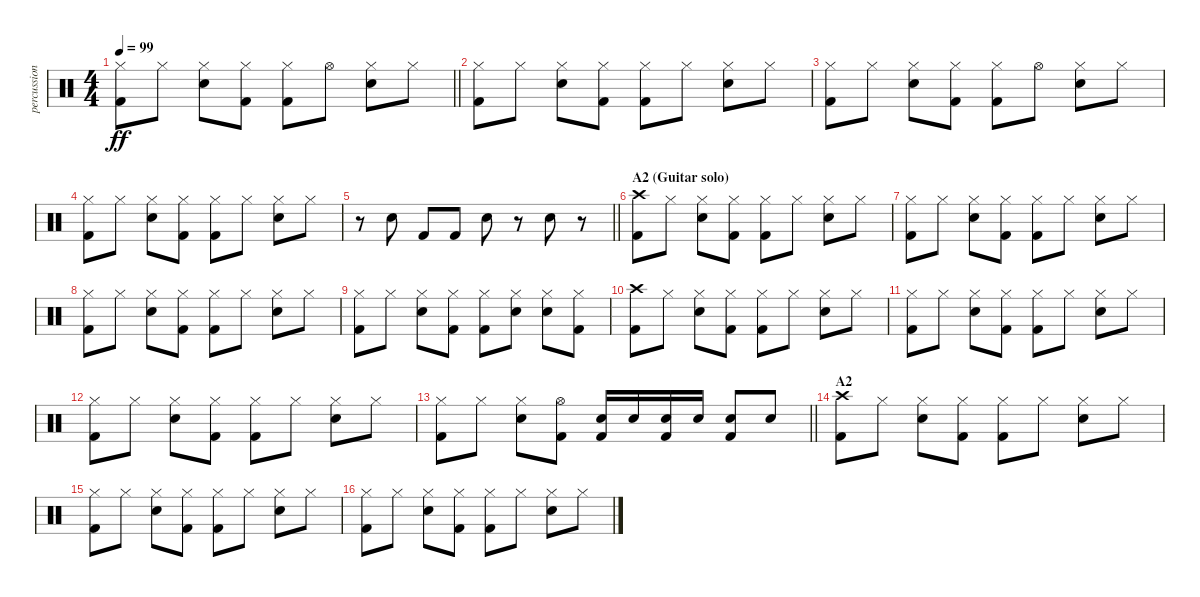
\track ("percussion" "percussion") {instrument percussion}
\staff {score}
\articulation defaults
\ts (4 4)
\tempo 99
\clef neutral
\barLineRight lightlight
\ks c
("Hi-Hat (closed)" "Kick (hit) 2").8{dy ff} "Hi-Hat (closed)".8 ("Snare (hit) 2" "Hi-Hat (closed)").8 ("Hi-Hat (closed)" "Kick (hit) 2").8 ("Hi-Hat (closed)" "Kick (hit) 2").8 "Hi-Hat (open)".8 ("Snare (hit) 2" "Hi-Hat (closed)").8 "Hi-Hat (closed)".8 |
("Hi-Hat (closed)" "Kick (hit) 2").8 "Hi-Hat (closed)".8 ("Snare (hit) 2" "Hi-Hat (closed)").8 ("Hi-Hat (closed)" "Kick (hit) 2").8 ("Hi-Hat (closed)" "Kick (hit) 2").8 "Hi-Hat (closed)".8 ("Snare (hit) 2" "Hi-Hat (closed)").8 "Hi-Hat (closed)".8 |
("Hi-Hat (closed)" "Kick (hit) 2").8 "Hi-Hat (closed)".8 ("Snare (hit) 2" "Hi-Hat (closed)").8 ("Hi-Hat (closed)" "Kick (hit) 2").8 ("Hi-Hat (closed)" "Kick (hit) 2").8 "Hi-Hat (open)".8 ("Snare (hit) 2" "Hi-Hat (closed)").8 "Hi-Hat (closed)".8 |
("Hi-Hat (closed)" "Kick (hit) 2").8 "Hi-Hat (closed)".8 ("Snare (hit) 2" "Hi-Hat (closed)").8 ("Hi-Hat (closed)" "Kick (hit) 2").8 ("Hi-Hat (closed)" "Kick (hit) 2").8 "Hi-Hat (closed)".8 ("Snare (hit) 2" "Hi-Hat (closed)").8 "Hi-Hat (closed)".8 |
\barLineRight lightlight
r.8 "Snare (hit) 2".8 "Kick (hit) 2".8 "Kick (hit) 2".8 "Snare (hit) 2".8 r.8 "Snare (hit) 2".8 r.8 |
\section ("" "A2 (Guitar solo)")
("Crash high (hit)" "Kick (hit) 2").8 "Hi-Hat (closed)".8 ("Snare (hit) 2" "Hi-Hat (closed)").8 ("Hi-Hat (closed)" "Kick (hit) 2").8 ("Hi-Hat (closed)" "Kick (hit) 2").8 "Hi-Hat (closed)".8 ("Snare (hit) 2" "Hi-Hat (closed)").8 "Hi-Hat (closed)".8 |
("Hi-Hat (closed)" "Kick (hit) 2").8 "Hi-Hat (closed)".8 ("Snare (hit) 2" "Hi-Hat (closed)").8 ("Hi-Hat (closed)" "Kick (hit) 2").8 ("Hi-Hat (closed)" "Kick (hit) 2").8 "Hi-Hat (closed)".8 ("Snare (hit) 2" "Hi-Hat (closed)").8 "Hi-Hat (closed)".8 |
("Hi-Hat (closed)" "Kick (hit) 2").8 "Hi-Hat (closed)".8 ("Snare (hit) 2" "Hi-Hat (closed)").8 ("Hi-Hat (closed)" "Kick (hit) 2").8 ("Hi-Hat (closed)" "Kick (hit) 2").8 "Hi-Hat (closed)".8 ("Snare (hit) 2" "Hi-Hat (closed)").8 "Hi-Hat (closed)".8 |
("Hi-Hat (closed)" "Kick (hit) 2").8 "Hi-Hat (closed)".8 ("Snare (hit) 2" "Hi-Hat (closed)").8 ("Hi-Hat (closed)" "Kick (hit) 2").8 ("Hi-Hat (closed)" "Kick (hit) 2").8 ("Snare (hit) 2" "Hi-Hat (closed)").8 ("Snare (hit) 2" "Hi-Hat (closed)").8 ("Hi-Hat (closed)" "Kick (hit) 2").8 |
("Crash high (hit)" "Kick (hit) 2").8 "Hi-Hat (closed)".8 ("Snare (hit) 2" "Hi-Hat (closed)").8 ("Hi-Hat (closed)" "Kick (hit) 2").8 ("Hi-Hat (closed)" "Kick (hit) 2").8 "Hi-Hat (closed)".8 ("Snare (hit) 2" "Hi-Hat (closed)").8 "Hi-Hat (closed)".8 |
("Hi-Hat (closed)" "Kick (hit) 2").8 "Hi-Hat (closed)".8 ("Snare (hit) 2" "Hi-Hat (closed)").8 ("Hi-Hat (closed)" "Kick (hit) 2").8 ("Hi-Hat (closed)" "Kick (hit) 2").8 "Hi-Hat (closed)".8 ("Snare (hit) 2" "Hi-Hat (closed)").8 "Hi-Hat (closed)".8 |
("Hi-Hat (closed)" "Kick (hit) 2").8 "Hi-Hat (closed)".8 ("Snare (hit) 2" "Hi-Hat (closed)").8 ("Hi-Hat (closed)" "Kick (hit) 2").8 ("Hi-Hat (closed)" "Kick (hit) 2").8 "Hi-Hat (closed)".8 ("Snare (hit) 2" "Hi-Hat (closed)").8 "Hi-Hat (closed)".8 |
\barLineRight lightlight
("Hi-Hat (closed)" "Kick (hit) 2").8 "Hi-Hat (closed)".8 ("Snare (hit) 2" "Hi-Hat (closed)").8 ("Hi-Hat (open)" "Kick (hit) 2").8 ("Snare (hit) 2" "Kick (hit) 2").16 "Snare (hit) 2".16 ("Snare (hit) 2" "Kick (hit) 2").16 "Snare (hit) 2".16 ("Snare (hit) 2" "Kick (hit) 2").8 "Snare (hit) 2".8 |
\section ("" "A2")
("Crash high (hit)" "Kick (hit) 2").8 "Hi-Hat (closed)".8 ("Snare (hit) 2" "Hi-Hat (closed)").8 ("Hi-Hat (closed)" "Kick (hit) 2").8 ("Hi-Hat (closed)" "Kick (hit) 2").8 "Hi-Hat (closed)".8 ("Snare (hit) 2" "Hi-Hat (closed)").8 "Hi-Hat (closed)".8 |
("Hi-Hat (closed)" "Kick (hit) 2").8 "Hi-Hat (closed)".8 ("Snare (hit) 2" "Hi-Hat (closed)").8 ("Hi-Hat (closed)" "Kick (hit) 2").8 ("Hi-Hat (closed)" "Kick (hit) 2").8 "Hi-Hat (closed)".8 ("Snare (hit) 2" "Hi-Hat (closed)").8 "Hi-Hat (closed)".8 |
("Hi-Hat (closed)" "Kick (hit) 2").8 "Hi-Hat (closed)".8 ("Snare (hit) 2" "Hi-Hat (closed)").8 ("Hi-Hat (closed)" "Kick (hit) 2").8 ("Hi-Hat (closed)" "Kick (hit) 2").8 "Hi-Hat (closed)".8 ("Snare (hit) 2" "Hi-Hat (closed)").8 "Hi-Hat (closed)".8
